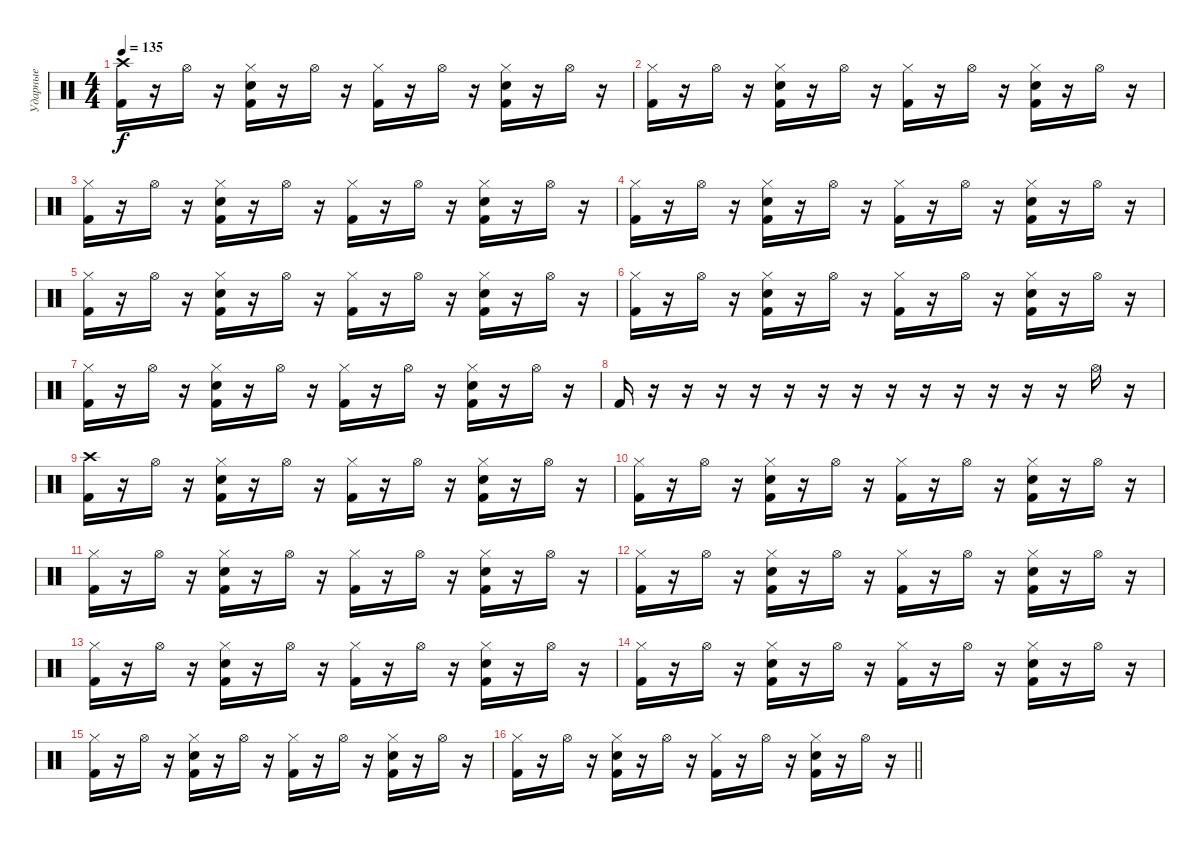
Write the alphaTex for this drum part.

\track ("Ударные" "Ударные") {instrument percussion}
\staff {score}
\articulation defaults
\ts (4 4)
\tempo 135
\clef neutral
\ks c
("Crash high (hit)" "Kick (hit) 2").16{dy f} r.16 "Hi-Hat (open)".16 r.16 ("Hi-Hat (closed)" "Electric Snare (hit)" "Kick (hit) 2").16 r.16 "Hi-Hat (open)".16 r.16 ("Hi-Hat (closed)" "Kick (hit) 2").16 r.16 "Hi-Hat (open)".16 r.16 ("Hi-Hat (closed)" "Electric Snare (hit)" "Kick (hit) 2").16 r.16 "Hi-Hat (open)".16 r.16 |
("Hi-Hat (closed)" "Kick (hit) 2").16 r.16 "Hi-Hat (open)".16 r.16 ("Hi-Hat (closed)" "Electric Snare (hit)" "Kick (hit) 2").16 r.16 "Hi-Hat (open)".16 r.16 ("Hi-Hat (closed)" "Kick (hit) 2").16 r.16 "Hi-Hat (open)".16 r.16 ("Hi-Hat (closed)" "Electric Snare (hit)" "Kick (hit) 2").16 r.16 "Hi-Hat (open)".16 r.16 |
("Hi-Hat (closed)" "Kick (hit) 2").16 r.16 "Hi-Hat (open)".16 r.16 ("Hi-Hat (closed)" "Electric Snare (hit)" "Kick (hit) 2").16 r.16 "Hi-Hat (open)".16 r.16 ("Hi-Hat (closed)" "Kick (hit) 2").16 r.16 "Hi-Hat (open)".16 r.16 ("Hi-Hat (closed)" "Electric Snare (hit)" "Kick (hit) 2").16 r.16 "Hi-Hat (open)".16 r.16 |
("Hi-Hat (closed)" "Kick (hit) 2").16 r.16 "Hi-Hat (open)".16 r.16 ("Hi-Hat (closed)" "Electric Snare (hit)" "Kick (hit) 2").16 r.16 "Hi-Hat (open)".16 r.16 ("Hi-Hat (closed)" "Kick (hit) 2").16 r.16 "Hi-Hat (open)".16 r.16 ("Hi-Hat (closed)" "Electric Snare (hit)" "Kick (hit) 2").16 r.16 "Hi-Hat (open)".16 r.16 |
("Hi-Hat (closed)" "Kick (hit) 2").16 r.16 "Hi-Hat (open)".16 r.16 ("Hi-Hat (closed)" "Electric Snare (hit)" "Kick (hit) 2").16 r.16 "Hi-Hat (open)".16 r.16 ("Hi-Hat (closed)" "Kick (hit) 2").16 r.16 "Hi-Hat (open)".16 r.16 ("Hi-Hat (closed)" "Electric Snare (hit)" "Kick (hit) 2").16 r.16 "Hi-Hat (open)".16 r.16 |
("Hi-Hat (closed)" "Kick (hit) 2").16 r.16 "Hi-Hat (open)".16 r.16 ("Hi-Hat (closed)" "Electric Snare (hit)" "Kick (hit) 2").16 r.16 "Hi-Hat (open)".16 r.16 ("Hi-Hat (closed)" "Kick (hit) 2").16 r.16 "Hi-Hat (open)".16 r.16 ("Hi-Hat (closed)" "Electric Snare (hit)" "Kick (hit) 2").16 r.16 "Hi-Hat (open)".16 r.16 |
("Hi-Hat (closed)" "Kick (hit) 2").16 r.16 "Hi-Hat (open)".16 r.16 ("Hi-Hat (closed)" "Electric Snare (hit)" "Kick (hit) 2").16 r.16 "Hi-Hat (open)".16 r.16 ("Hi-Hat (closed)" "Kick (hit) 2").16 r.16 "Hi-Hat (open)".16 r.16 ("Hi-Hat (closed)" "Electric Snare (hit)" "Kick (hit) 2").16 r.16 "Hi-Hat (open)".16 r.16 |
"Kick (hit) 2".16 r.16 r.16 r.16 r.16 r.16 r.16 r.16 r.16 r.16 r.16 r.16 r.16 r.16 "Hi-Hat (open)".16 r.16 |
("Crash high (hit)" "Kick (hit) 2").16 r.16 "Hi-Hat (open)".16 r.16 ("Hi-Hat (closed)" "Electric Snare (hit)" "Kick (hit) 2").16 r.16 "Hi-Hat (open)".16 r.16 ("Hi-Hat (closed)" "Kick (hit) 2").16 r.16 "Hi-Hat (open)".16 r.16 ("Hi-Hat (closed)" "Electric Snare (hit)" "Kick (hit) 2").16 r.16 "Hi-Hat (open)".16 r.16 |
("Hi-Hat (closed)" "Kick (hit) 2").16 r.16 "Hi-Hat (open)".16 r.16 ("Hi-Hat (closed)" "Electric Snare (hit)" "Kick (hit) 2").16 r.16 "Hi-Hat (open)".16 r.16 ("Hi-Hat (closed)" "Kick (hit) 2").16 r.16 "Hi-Hat (open)".16 r.16 ("Hi-Hat (closed)" "Electric Snare (hit)" "Kick (hit) 2").16 r.16 "Hi-Hat (open)".16 r.16 |
("Hi-Hat (closed)" "Kick (hit) 2").16 r.16 "Hi-Hat (open)".16 r.16 ("Hi-Hat (closed)" "Electric Snare (hit)" "Kick (hit) 2").16 r.16 "Hi-Hat (open)".16 r.16 ("Hi-Hat (closed)" "Kick (hit) 2").16 r.16 "Hi-Hat (open)".16 r.16 ("Hi-Hat (closed)" "Electric Snare (hit)" "Kick (hit) 2").16 r.16 "Hi-Hat (open)".16 r.16 |
("Hi-Hat (closed)" "Kick (hit) 2").16 r.16 "Hi-Hat (open)".16 r.16 ("Hi-Hat (closed)" "Electric Snare (hit)" "Kick (hit) 2").16 r.16 "Hi-Hat (open)".16 r.16 ("Hi-Hat (closed)" "Kick (hit) 2").16 r.16 "Hi-Hat (open)".16 r.16 ("Hi-Hat (closed)" "Electric Snare (hit)" "Kick (hit) 2").16 r.16 "Hi-Hat (open)".16 r.16 |
("Hi-Hat (closed)" "Kick (hit) 2").16 r.16 "Hi-Hat (open)".16 r.16 ("Hi-Hat (closed)" "Electric Snare (hit)" "Kick (hit) 2").16 r.16 "Hi-Hat (open)".16 r.16 ("Hi-Hat (closed)" "Kick (hit) 2").16 r.16 "Hi-Hat (open)".16 r.16 ("Hi-Hat (closed)" "Electric Snare (hit)" "Kick (hit) 2").16 r.16 "Hi-Hat (open)".16 r.16 |
("Hi-Hat (closed)" "Kick (hit) 2").16 r.16 "Hi-Hat (open)".16 r.16 ("Hi-Hat (closed)" "Electric Snare (hit)" "Kick (hit) 2").16 r.16 "Hi-Hat (open)".16 r.16 ("Hi-Hat (closed)" "Kick (hit) 2").16 r.16 "Hi-Hat (open)".16 r.16 ("Hi-Hat (closed)" "Electric Snare (hit)" "Kick (hit) 2").16 r.16 "Hi-Hat (open)".16 r.16 |
("Hi-Hat (closed)" "Kick (hit) 2").16 r.16 "Hi-Hat (open)".16 r.16 ("Hi-Hat (closed)" "Electric Snare (hit)" "Kick (hit) 2").16 r.16 "Hi-Hat (open)".16 r.16 ("Hi-Hat (closed)" "Kick (hit) 2").16 r.16 "Hi-Hat (open)".16 r.16 ("Hi-Hat (closed)" "Electric Snare (hit)" "Kick (hit) 2").16 r.16 "Hi-Hat (open)".16 r.16 |
\barLineRight lightlight
("Hi-Hat (closed)" "Kick (hit) 2").16 r.16 "Hi-Hat (open)".16 r.16 ("Hi-Hat (closed)" "Electric Snare (hit)" "Kick (hit) 2").16 r.16 "Hi-Hat (open)".16 r.16 ("Hi-Hat (closed)" "Kick (hit) 2").16 r.16 "Hi-Hat (open)".16 r.16 ("Hi-Hat (closed)" "Electric Snare (hit)" "Kick (hit) 2").16 r.16 "Hi-Hat (open)".16 r.16
